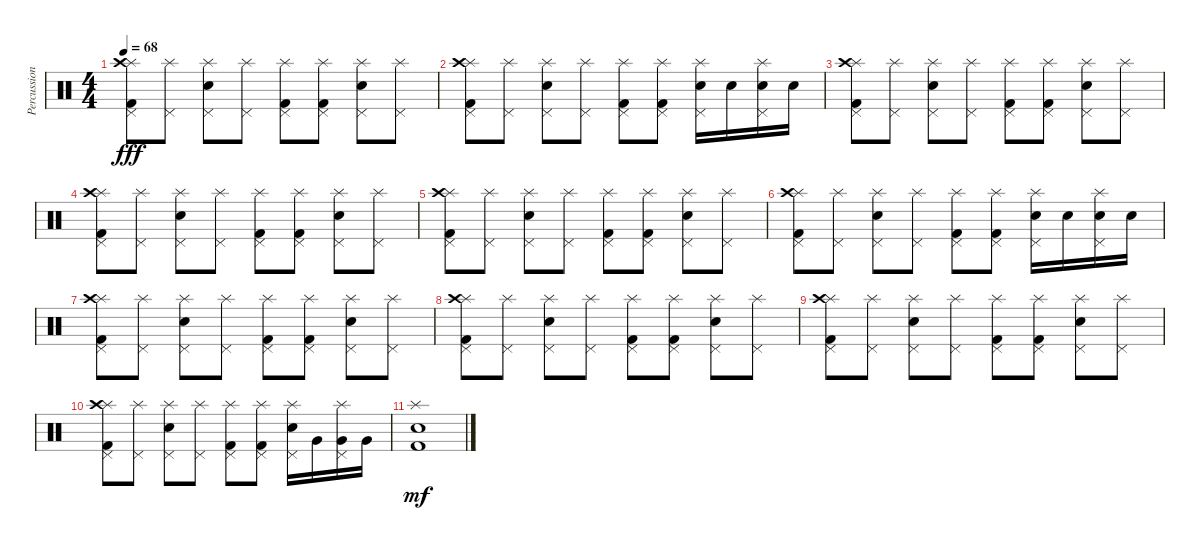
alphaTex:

\track ("Percussion" "Percussion") {instrument percussion}
\staff {score}
\articulation defaults
\ts (4 4)
\tempo 68
\clef neutral
\ks c
("Splash (hit)" "Crash high (hit)" "Pedal Hi-Hat (hit)" "Kick (hit) 2").8{dy fff} ("Splash (hit)" "Pedal Hi-Hat (hit)").8 ("Splash (hit)" "Pedal Hi-Hat (hit)" "Electric Snare (hit)").8 ("Splash (hit)" "Pedal Hi-Hat (hit)").8 ("Splash (hit)" "Pedal Hi-Hat (hit)" "Kick (hit) 2").8 ("Splash (hit)" "Pedal Hi-Hat (hit)" "Kick (hit) 2").8 ("Splash (hit)" "Pedal Hi-Hat (hit)" "Electric Snare (hit)").8 ("Splash (hit)" "Pedal Hi-Hat (hit)").8 |
("Splash (hit)" "Crash high (hit)" "Pedal Hi-Hat (hit)" "Kick (hit) 2").8 ("Splash (hit)" "Pedal Hi-Hat (hit)").8 ("Splash (hit)" "Pedal Hi-Hat (hit)" "Electric Snare (hit)").8 ("Splash (hit)" "Pedal Hi-Hat (hit)").8 ("Splash (hit)" "Pedal Hi-Hat (hit)" "Kick (hit) 2").8 ("Splash (hit)" "Pedal Hi-Hat (hit)" "Kick (hit) 2").8 ("Splash (hit)" "Pedal Hi-Hat (hit)" "Electric Snare (hit)").16 "Electric Snare (hit)".16 ("Splash (hit)" "Pedal Hi-Hat (hit)" "Electric Snare (hit)").16 "Electric Snare (hit)".16 |
("Splash (hit)" "Crash high (hit)" "Pedal Hi-Hat (hit)" "Kick (hit) 2").8 ("Splash (hit)" "Pedal Hi-Hat (hit)").8 ("Splash (hit)" "Pedal Hi-Hat (hit)" "Electric Snare (hit)").8 ("Splash (hit)" "Pedal Hi-Hat (hit)").8 ("Splash (hit)" "Pedal Hi-Hat (hit)" "Kick (hit) 2").8 ("Splash (hit)" "Pedal Hi-Hat (hit)" "Kick (hit) 2").8 ("Splash (hit)" "Pedal Hi-Hat (hit)" "Electric Snare (hit)").8 ("Splash (hit)" "Pedal Hi-Hat (hit)").8 |
("Splash (hit)" "Crash high (hit)" "Pedal Hi-Hat (hit)" "Kick (hit) 2").8 ("Splash (hit)" "Pedal Hi-Hat (hit)").8 ("Splash (hit)" "Pedal Hi-Hat (hit)" "Electric Snare (hit)").8 ("Splash (hit)" "Pedal Hi-Hat (hit)").8 ("Splash (hit)" "Pedal Hi-Hat (hit)" "Kick (hit) 2").8 ("Splash (hit)" "Pedal Hi-Hat (hit)" "Kick (hit) 2").8 ("Splash (hit)" "Pedal Hi-Hat (hit)" "Electric Snare (hit)").8 ("Splash (hit)" "Pedal Hi-Hat (hit)").8 |
("Splash (hit)" "Crash high (hit)" "Pedal Hi-Hat (hit)" "Kick (hit) 2").8 ("Splash (hit)" "Pedal Hi-Hat (hit)").8 ("Splash (hit)" "Pedal Hi-Hat (hit)" "Electric Snare (hit)").8 ("Splash (hit)" "Pedal Hi-Hat (hit)").8 ("Splash (hit)" "Pedal Hi-Hat (hit)" "Kick (hit) 2").8 ("Splash (hit)" "Pedal Hi-Hat (hit)" "Kick (hit) 2").8 ("Splash (hit)" "Pedal Hi-Hat (hit)" "Electric Snare (hit)").8 ("Splash (hit)" "Pedal Hi-Hat (hit)").8 |
("Splash (hit)" "Crash high (hit)" "Pedal Hi-Hat (hit)" "Kick (hit) 2").8 ("Splash (hit)" "Pedal Hi-Hat (hit)").8 ("Splash (hit)" "Pedal Hi-Hat (hit)" "Electric Snare (hit)").8 ("Splash (hit)" "Pedal Hi-Hat (hit)").8 ("Splash (hit)" "Pedal Hi-Hat (hit)" "Kick (hit) 2").8 ("Splash (hit)" "Pedal Hi-Hat (hit)" "Kick (hit) 2").8 ("Splash (hit)" "Pedal Hi-Hat (hit)" "Electric Snare (hit)").16 "Electric Snare (hit)".16 ("Splash (hit)" "Pedal Hi-Hat (hit)" "Electric Snare (hit)").16 "Electric Snare (hit)".16 |
("Splash (hit)" "Crash high (hit)" "Pedal Hi-Hat (hit)" "Kick (hit) 2").8 ("Splash (hit)" "Pedal Hi-Hat (hit)").8 ("Splash (hit)" "Pedal Hi-Hat (hit)" "Electric Snare (hit)").8 ("Splash (hit)" "Pedal Hi-Hat (hit)").8 ("Splash (hit)" "Pedal Hi-Hat (hit)" "Kick (hit) 2").8 ("Splash (hit)" "Pedal Hi-Hat (hit)" "Kick (hit) 2").8 ("Splash (hit)" "Pedal Hi-Hat (hit)" "Electric Snare (hit)").8 ("Splash (hit)" "Pedal Hi-Hat (hit)").8 |
("Splash (hit)" "Crash high (hit)" "Pedal Hi-Hat (hit)" "Kick (hit) 2").8 ("Splash (hit)" "Pedal Hi-Hat (hit)").8 ("Splash (hit)" "Pedal Hi-Hat (hit)" "Electric Snare (hit)").8 ("Splash (hit)" "Pedal Hi-Hat (hit)").8 ("Splash (hit)" "Pedal Hi-Hat (hit)" "Kick (hit) 2").8 ("Splash (hit)" "Pedal Hi-Hat (hit)" "Kick (hit) 2").8 ("Splash (hit)" "Pedal Hi-Hat (hit)" "Electric Snare (hit)").8 ("Splash (hit)" "Pedal Hi-Hat (hit)").8 |
("Splash (hit)" "Crash high (hit)" "Pedal Hi-Hat (hit)" "Kick (hit) 2").8 ("Splash (hit)" "Pedal Hi-Hat (hit)").8 ("Splash (hit)" "Pedal Hi-Hat (hit)" "Electric Snare (hit)").8 ("Splash (hit)" "Pedal Hi-Hat (hit)").8 ("Splash (hit)" "Pedal Hi-Hat (hit)" "Kick (hit) 2").8 ("Splash (hit)" "Pedal Hi-Hat (hit)" "Kick (hit) 2").8 ("Splash (hit)" "Pedal Hi-Hat (hit)" "Electric Snare (hit)").8 ("Splash (hit)" "Pedal Hi-Hat (hit)").8 |
("Splash (hit)" "Crash high (hit)" "Pedal Hi-Hat (hit)" "Kick (hit) 2").8 ("Splash (hit)" "Pedal Hi-Hat (hit)").8 ("Splash (hit)" "Pedal Hi-Hat (hit)" "Electric Snare (hit)").8 ("Splash (hit)" "Pedal Hi-Hat (hit)").8 ("Splash (hit)" "Pedal Hi-Hat (hit)" "Kick (hit) 2").8 ("Splash (hit)" "Pedal Hi-Hat (hit)" "Kick (hit) 2").8 ("Splash (hit)" "Pedal Hi-Hat (hit)" "Electric Snare (hit)").16 "Very Low Tom (hit)".16 ("Splash (hit)" "Pedal Hi-Hat (hit)" "Very Low Tom (hit)").16 "Very Low Tom (hit)".16 |
("Splash (hit)" "Electric Snare (hit)" "Kick (hit) 2").1{dy mf}
